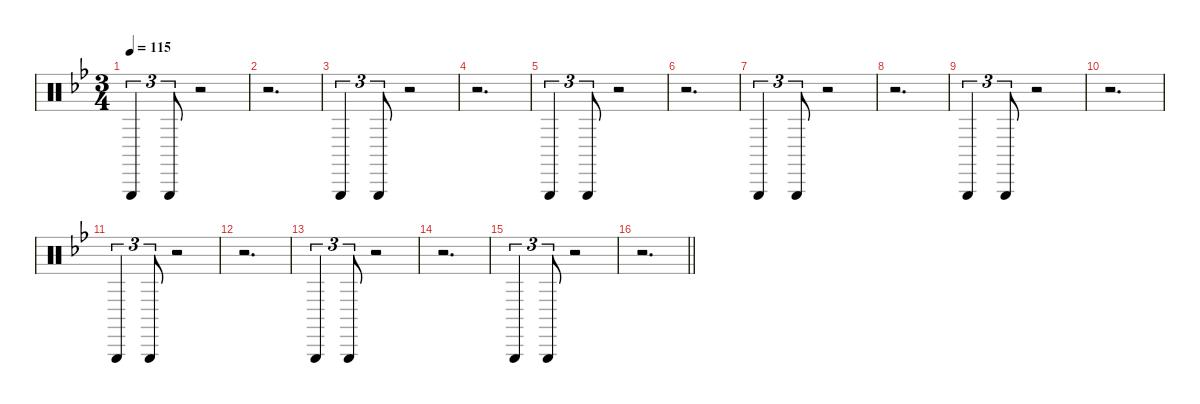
\defaultSystemsLayout 4
\hideDynamics
\bracketExtendMode nobrackets
\singleTrackTrackNamePolicy hidden
\multiTrackTrackNamePolicy hidden
\firstSystemTrackNameMode fullname
\firstSystemTrackNameOrientation horizontal
\otherSystemsTrackNameOrientation horizontal
\track ("Percussion" "drm.") {defaultSystemsLayout 16 instrument percussion}
\staff {score}
\articulation defaults
\ts (3 4)
\tempo 115
\clef neutral
\ks gminor "Triangle (hit)"{acc forcenatural}.4{tu (3 2) dy mf beam Up} "Triangle (hit)"{acc forcenatural}.8{tu (3 2) dy p beam Up}
r.2{beam Up} |
r.2{d beam Down} |
"Triangle (hit)"{acc forcenatural}.4{tu (3 2) dy mf beam Up} "Triangle (hit)"{acc forcenatural}.8{tu (3 2) dy p beam Up} r.2{beam Up} |
r.2{d beam Down} |
"Triangle (hit)"{acc forcenatural}.4{tu (3 2) dy mf beam Up} "Triangle (hit)"{acc forcenatural}.8{tu (3 2) dy p beam Up} r.2{beam Up} |
r.2{d beam Down} |
"Triangle (hit)"{acc forcenatural}.4{tu (3 2) dy mf beam Up} "Triangle (hit)"{acc forcenatural}.8{tu (3 2) dy p beam Up} r.2{beam Up} |
r.2{d beam Down} |
"Triangle (hit)"{acc forcenatural}.4{tu (3 2) dy mf beam Up} "Triangle (hit)"{acc forcenatural}.8{tu (3 2) dy p beam Up} r.2{beam Up} |
r.2{d beam Down} |
"Triangle (hit)"{acc forcenatural}.4{tu (3 2) dy mf beam Up} "Triangle (hit)"{acc forcenatural}.8{tu (3 2) dy p beam Up} r.2{beam Up} |
r.2{d beam Down} |
"Triangle (hit)"{acc forcenatural}.4{tu (3 2) dy mf beam Up} "Triangle (hit)"{acc forcenatural}.8{tu (3 2) dy p beam Up} r.2{beam Up} |
r.2{d beam Down} |
"Triangle (hit)"{acc forcenatural}.4{tu (3 2) dy mf beam Up} "Triangle (hit)"{acc forcenatural}.8{tu (3 2) dy p beam Up} r.2{beam Up} |
\barLineRight lightlight
r.2{d beam Down}
